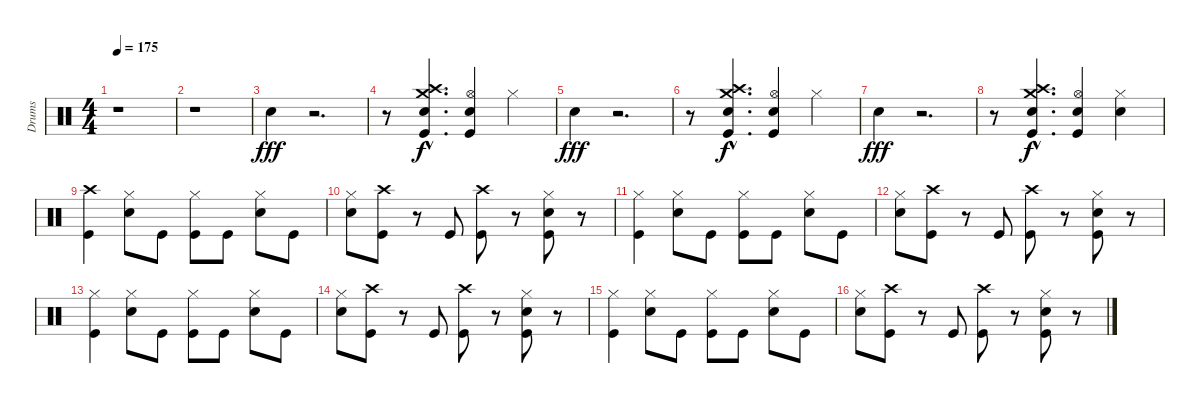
\track ("Drums" "Drums") {instrument percussion}
\staff {score}
\articulation defaults
\ts (4 4)
\tempo 175
\clef neutral
\ks c
r.1{dy fff} |
r.1 |
"Electric Snare (hit)".4 r.2{d} |
r.8 ("Crash high (hit)"{hac} "Crash medium (hit)"{hac} "Kick (hit)"{hac} "Electric Snare (hit)"{hac}).4{d dy f} ("Hi-Hat (open)" "Kick (hit)" "Snare (hit) 2").4 "Hi-Hat (closed)".4 |
"Snare (hit) 2".4{dy fff} r.2{d} |
r.8 ("Crash high (hit)"{hac} "Crash medium (hit)"{hac} "Kick (hit)"{hac} "Electric Snare (hit)"{hac}).4{d dy f} ("Hi-Hat (open)" "Kick (hit)" "Snare (hit) 2").4 "Hi-Hat (closed)".4 |
"Snare (hit) 2".4{dy fff} r.2{d} |
r.8 ("Crash high (hit)"{hac} "Crash medium (hit)"{hac} "Kick (hit)"{hac} "Electric Snare (hit)"{hac}).4{d dy f} ("Hi-Hat (open)" "Kick (hit)" "Snare (hit) 2").4 ("Snare (hit) 2" "Hi-Hat (closed)").4 |
("Kick (hit)" "Crash high (hit)").4 ("Hi-Hat (closed)" "Electric Snare (hit)").8 "Kick (hit)".8 ("Hi-Hat (closed)" "Kick (hit)").8 "Kick (hit)".8 ("Hi-Hat (closed)" "Electric Snare (hit)").8 "Kick (hit)".8 |
("Electric Snare (hit)" "Hi-Hat (closed)").8 ("Kick (hit)" "Crash high (hit)").8 r.8 "Kick (hit)".8 ("Kick (hit)" "Crash high (hit)").8 r.8 ("Kick (hit)" "Electric Snare (hit)" "Hi-Hat (closed)").8 r.8 |
("Hi-Hat (closed)" "Kick (hit)").4 ("Hi-Hat (closed)" "Electric Snare (hit)").8 "Kick (hit)".8 ("Hi-Hat (closed)" "Kick (hit)").8 "Kick (hit)".8 ("Hi-Hat (closed)" "Electric Snare (hit)").8 "Kick (hit)".8 |
("Electric Snare (hit)" "Hi-Hat (closed)").8 ("Kick (hit)" "Crash high (hit)").8 r.8 "Kick (hit)".8 ("Kick (hit)" "Crash high (hit)").8 r.8 ("Kick (hit)" "Electric Snare (hit)" "Hi-Hat (closed)").8 r.8 |
("Hi-Hat (closed)" "Kick (hit)").4 ("Hi-Hat (closed)" "Electric Snare (hit)").8 "Kick (hit)".8 ("Hi-Hat (closed)" "Kick (hit)").8 "Kick (hit)".8 ("Hi-Hat (closed)" "Electric Snare (hit)").8 "Kick (hit)".8 |
("Electric Snare (hit)" "Hi-Hat (closed)").8 ("Kick (hit)" "Crash high (hit)").8 r.8 "Kick (hit)".8 ("Kick (hit)" "Crash high (hit)").8 r.8 ("Kick (hit)" "Electric Snare (hit)" "Hi-Hat (closed)").8 r.8 |
("Hi-Hat (closed)" "Kick (hit)").4 ("Hi-Hat (closed)" "Electric Snare (hit)").8 "Kick (hit)".8 ("Hi-Hat (closed)" "Kick (hit)").8 "Kick (hit)".8 ("Hi-Hat (closed)" "Electric Snare (hit)").8 "Kick (hit)".8 |
("Electric Snare (hit)" "Hi-Hat (closed)").8 ("Kick (hit)" "Crash high (hit)").8 r.8 "Kick (hit)".8 ("Kick (hit)" "Crash high (hit)").8 r.8 ("Kick (hit)" "Electric Snare (hit)" "Hi-Hat (closed)").8 r.8
